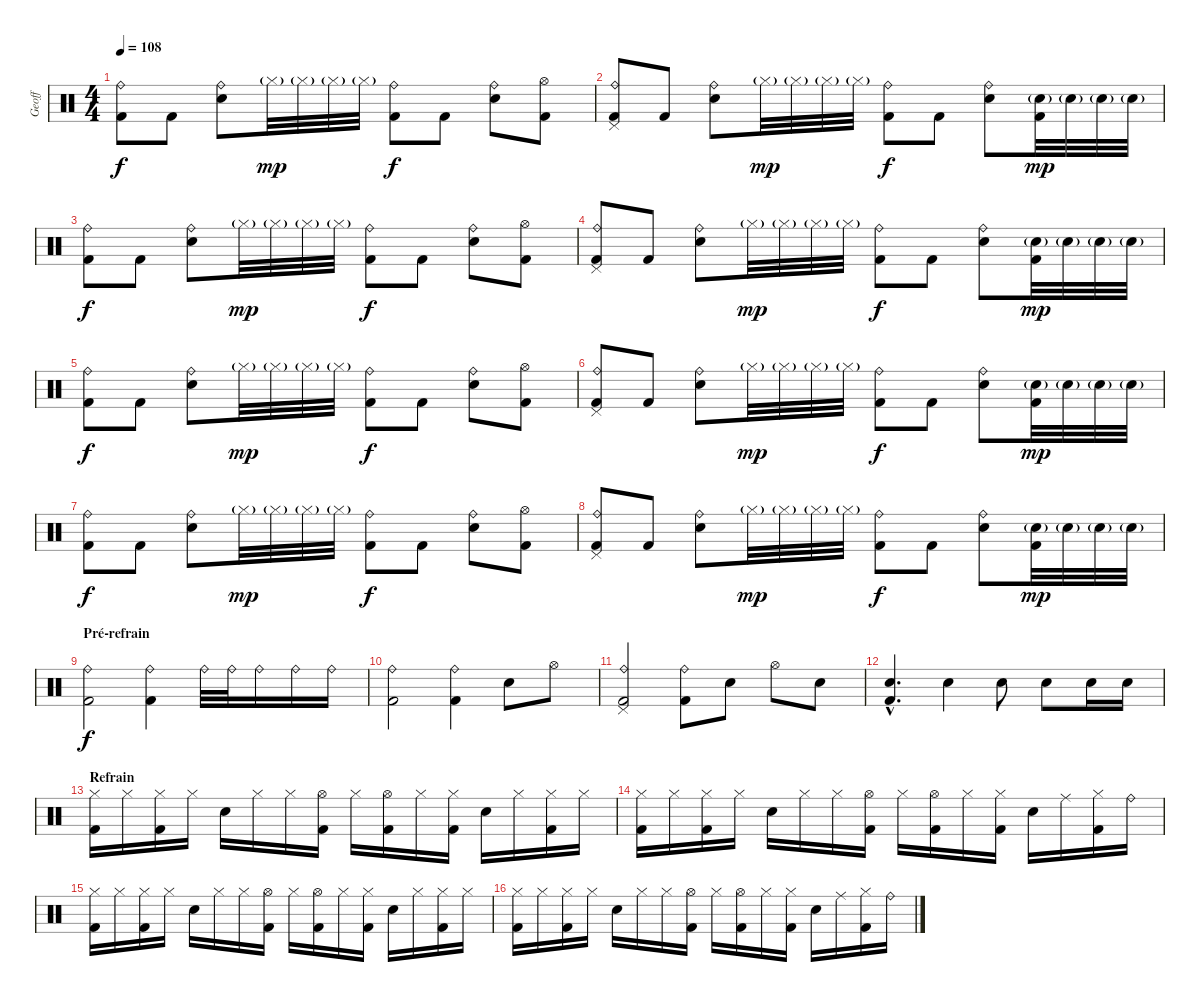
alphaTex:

\track ("Geoff" "Geoff") {instrument percussion}
\staff {score}
\articulation defaults
\ts (4 4)
\tempo 108
\clef neutral
\ks c
("Ride (bell)" "Kick (hit) 2").8{dy f} "Kick (hit) 2".8 ("Ride (bell)" "Electric Snare (hit)").8 "Hi-Hat (closed)"{g}.32{dy mp} "Hi-Hat (closed)"{g}.32 "Hi-Hat (closed)"{g}.32 "Hi-Hat (closed)"{g}.32 ("Ride (bell)" "Kick (hit) 2").8{dy f} "Kick (hit) 2".8 ("Ride (bell)" "Electric Snare (hit)").8 ("Hi-Hat (open)" "Kick (hit) 2").8 |
("Ride (bell)" "Pedal Hi-Hat (hit)" "Kick (hit) 2").8 "Kick (hit) 2".8 ("Ride (bell)" "Electric Snare (hit)").8 "Hi-Hat (closed)"{g}.32{dy mp} "Hi-Hat (closed)"{g}.32 "Hi-Hat (closed)"{g}.32 "Hi-Hat (closed)"{g}.32 ("Ride (bell)" "Kick (hit) 2").8{dy f} "Kick (hit) 2".8 ("Ride (bell)" "Electric Snare (hit)").8 ("Electric Snare (hit)"{g} "Kick (hit) 2").32{dy mp} "Electric Snare (hit)"{g}.32 "Electric Snare (hit)"{g}.32 "Electric Snare (hit)"{g}.32 |
("Ride (bell)" "Kick (hit) 2").8{dy f} "Kick (hit) 2".8 ("Ride (bell)" "Electric Snare (hit)").8 "Hi-Hat (closed)"{g}.32{dy mp} "Hi-Hat (closed)"{g}.32 "Hi-Hat (closed)"{g}.32 "Hi-Hat (closed)"{g}.32 ("Ride (bell)" "Kick (hit) 2").8{dy f} "Kick (hit) 2".8 ("Ride (bell)" "Electric Snare (hit)").8 ("Hi-Hat (open)" "Kick (hit) 2").8 |
("Ride (bell)" "Pedal Hi-Hat (hit)" "Kick (hit) 2").8 "Kick (hit) 2".8 ("Ride (bell)" "Electric Snare (hit)").8 "Hi-Hat (closed)"{g}.32{dy mp} "Hi-Hat (closed)"{g}.32 "Hi-Hat (closed)"{g}.32 "Hi-Hat (closed)"{g}.32 ("Ride (bell)" "Kick (hit) 2").8{dy f} "Kick (hit) 2".8 ("Ride (bell)" "Electric Snare (hit)").8 ("Electric Snare (hit)"{g} "Kick (hit) 2").32{dy mp} "Electric Snare (hit)"{g}.32 "Electric Snare (hit)"{g}.32 "Electric Snare (hit)"{g}.32 |
("Ride (bell)" "Kick (hit) 2").8{dy f} "Kick (hit) 2".8 ("Ride (bell)" "Electric Snare (hit)").8 "Hi-Hat (closed)"{g}.32{dy mp} "Hi-Hat (closed)"{g}.32 "Hi-Hat (closed)"{g}.32 "Hi-Hat (closed)"{g}.32 ("Ride (bell)" "Kick (hit) 2").8{dy f} "Kick (hit) 2".8 ("Ride (bell)" "Electric Snare (hit)").8 ("Hi-Hat (open)" "Kick (hit) 2").8 |
("Ride (bell)" "Pedal Hi-Hat (hit)" "Kick (hit) 2").8 "Kick (hit) 2".8 ("Ride (bell)" "Electric Snare (hit)").8 "Hi-Hat (closed)"{g}.32{dy mp} "Hi-Hat (closed)"{g}.32 "Hi-Hat (closed)"{g}.32 "Hi-Hat (closed)"{g}.32 ("Ride (bell)" "Kick (hit) 2").8{dy f} "Kick (hit) 2".8 ("Ride (bell)" "Electric Snare (hit)").8 ("Electric Snare (hit)"{g} "Kick (hit) 2").32{dy mp} "Electric Snare (hit)"{g}.32 "Electric Snare (hit)"{g}.32 "Electric Snare (hit)"{g}.32 |
("Ride (bell)" "Kick (hit) 2").8{dy f} "Kick (hit) 2".8 ("Ride (bell)" "Electric Snare (hit)").8 "Hi-Hat (closed)"{g}.32{dy mp} "Hi-Hat (closed)"{g}.32 "Hi-Hat (closed)"{g}.32 "Hi-Hat (closed)"{g}.32 ("Ride (bell)" "Kick (hit) 2").8{dy f} "Kick (hit) 2".8 ("Ride (bell)" "Electric Snare (hit)").8 ("Hi-Hat (open)" "Kick (hit) 2").8 |
("Ride (bell)" "Pedal Hi-Hat (hit)" "Kick (hit) 2").8 "Kick (hit) 2".8 ("Ride (bell)" "Electric Snare (hit)").8 "Hi-Hat (closed)"{g}.32{dy mp} "Hi-Hat (closed)"{g}.32 "Hi-Hat (closed)"{g}.32 "Hi-Hat (closed)"{g}.32 ("Ride (bell)" "Kick (hit) 2").8{dy f} "Kick (hit) 2".8 ("Ride (bell)" "Electric Snare (hit)").8 ("Electric Snare (hit)"{g} "Kick (hit) 2").32{dy mp} "Electric Snare (hit)"{g}.32 "Electric Snare (hit)"{g}.32 "Electric Snare (hit)"{g}.32 |
\section ("" "Pré-refrain")
("Ride (bell)" "Kick (hit) 2").2{dy f} ("Ride (bell)" "Kick (hit) 2").4 "Ride (bell)".32 "Ride (bell)".32 "Ride (bell)".16 "Ride (bell)".16 "Ride (bell)".16 |
("Ride (bell)" "Kick (hit) 2").2 ("Ride (bell)" "Kick (hit) 2").4 "Electric Snare (hit)".8 "Hi-Hat (open)".8 |
("Ride (bell)" "Pedal Hi-Hat (hit)" "Kick (hit) 2").2 ("Ride (bell)" "Kick (hit) 2").8 "Electric Snare (hit)".8 "Hi-Hat (open)".8 "Electric Snare (hit)".8 |
("Electric Snare (hit)"{hac} "Kick (hit) 2"{hac}).4{d} "Electric Snare (hit)".4 "Electric Snare (hit)".8 "Electric Snare (hit)".8 "Electric Snare (hit)".16 "Electric Snare (hit)".16 |
\section ("" "Refrain")
("Hi-Hat (closed)" "Kick (hit) 2").16 "Hi-Hat (closed)".16 ("Hi-Hat (closed)" "Kick (hit) 2").16 "Hi-Hat (closed)".16 "Electric Snare (hit)".16 "Hi-Hat (closed)".16 "Hi-Hat (closed)".16 ("Hi-Hat (open)" "Kick (hit) 2").16 "Hi-Hat (closed)".16 ("Hi-Hat (open)" "Kick (hit) 2").16 "Hi-Hat (closed)".16 ("Hi-Hat (closed)" "Kick (hit) 2").16 "Electric Snare (hit)".16 "Hi-Hat (closed)".16 ("Hi-Hat (closed)" "Kick (hit) 2").16 "Hi-Hat (closed)".16 |
("Hi-Hat (closed)" "Kick (hit) 2").16 "Hi-Hat (closed)".16 ("Hi-Hat (closed)" "Kick (hit) 2").16 "Hi-Hat (closed)".16 "Electric Snare (hit)".16 "Hi-Hat (closed)".16 "Hi-Hat (closed)".16 ("Hi-Hat (open)" "Kick (hit) 2").16 "Hi-Hat (closed)".16 ("Hi-Hat (open)" "Kick (hit) 2").16 "Hi-Hat (closed)".16 ("Hi-Hat (closed)" "Kick (hit) 2").16 "Electric Snare (hit)".16 "Ride (middle)".16 ("Hi-Hat (closed)" "Kick (hit) 2").16 "Ride (bell)".16 |
("Hi-Hat (closed)" "Kick (hit) 2").16 "Hi-Hat (closed)".16 ("Hi-Hat (closed)" "Kick (hit) 2").16 "Hi-Hat (closed)".16 "Electric Snare (hit)".16 "Hi-Hat (closed)".16 "Hi-Hat (closed)".16 ("Hi-Hat (open)" "Kick (hit) 2").16 "Hi-Hat (closed)".16 ("Hi-Hat (open)" "Kick (hit) 2").16 "Hi-Hat (closed)".16 ("Hi-Hat (closed)" "Kick (hit) 2").16 "Electric Snare (hit)".16 "Hi-Hat (closed)".16 ("Hi-Hat (closed)" "Kick (hit) 2").16 "Hi-Hat (closed)".16 |
("Hi-Hat (closed)" "Kick (hit) 2").16 "Hi-Hat (closed)".16 ("Hi-Hat (closed)" "Kick (hit) 2").16 "Hi-Hat (closed)".16 "Electric Snare (hit)".16 "Hi-Hat (closed)".16 "Hi-Hat (closed)".16 ("Hi-Hat (open)" "Kick (hit) 2").16 "Hi-Hat (closed)".16 ("Hi-Hat (open)" "Kick (hit) 2").16 "Hi-Hat (closed)".16 ("Hi-Hat (closed)" "Kick (hit) 2").16 "Electric Snare (hit)".16 "Ride (middle)".16 ("Hi-Hat (closed)" "Kick (hit) 2").16 "Ride (bell)".16
